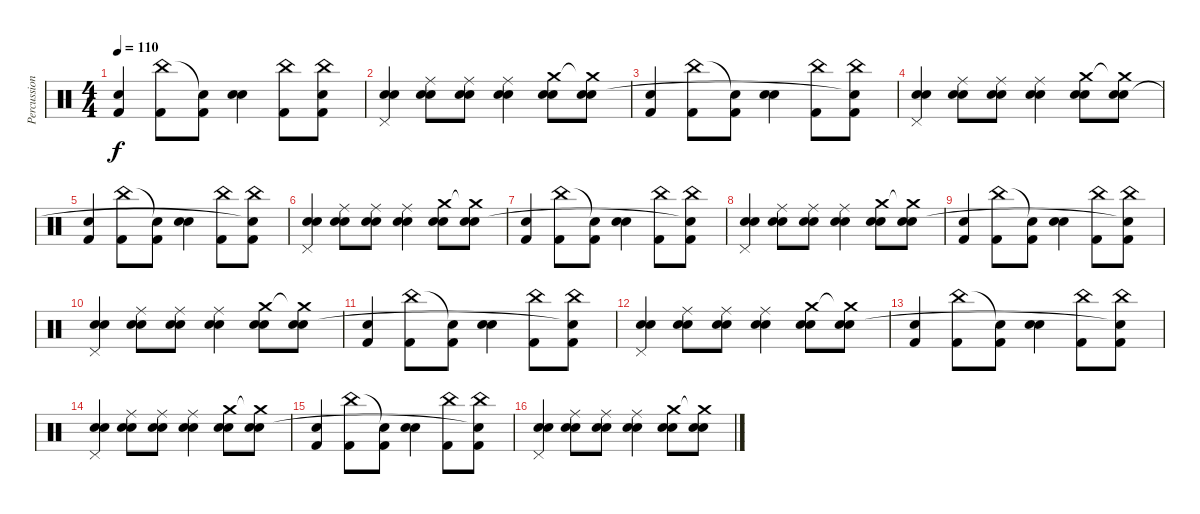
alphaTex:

\track ("Percussion" "Percussion") {instrument percussion}
\staff {score}
\articulation defaults
\ts (4 4)
\tempo 110
\clef neutral
\ks c
("Kick (hit) 2" "Electric Snare (hit)").4{dy f} ("Kick (hit) 2" "China (hit)").8 ("Kick (hit) 2" "Snare (hit)"{t}).8 ("Hand Clap (hit)" "Electric Snare (hit)").4 ("Kick (hit) 2" "China (hit)").8 ("Kick (hit) 2" "China (hit)" "Snare (hit)"{t}).8 |
("Pedal Hi-Hat (hit)" "Electric Snare (hit)" "Snare (hit) 2").4 ("Snare (hit) 2" "Ride (middle)" "Electric Snare (hit)").8 ("Snare (hit) 2" "Ride (middle)" "Electric Snare (hit)").8 ("Snare (hit) 2" "Ride (middle)" "Electric Snare (hit)").4 ("Snare (hit) 2" "Crash medium (hit)" "Electric Snare (hit)").8 ("Snare (hit) 2" "Crash medium (hit)"{t} "Electric Snare (hit)").8 |
("Kick (hit) 2" "Electric Snare (hit)").4 ("Kick (hit) 2" "China (hit)").8 ("Kick (hit) 2" "Snare (hit)"{t}).8 ("Hand Clap (hit)" "Electric Snare (hit)").4 ("Kick (hit) 2" "China (hit)").8 ("Kick (hit) 2" "China (hit)" "Snare (hit)"{t}).8 |
("Pedal Hi-Hat (hit)" "Electric Snare (hit)" "Snare (hit) 2").4 ("Snare (hit) 2" "Ride (middle)" "Electric Snare (hit)").8 ("Snare (hit) 2" "Ride (middle)" "Electric Snare (hit)").8 ("Snare (hit) 2" "Ride (middle)" "Electric Snare (hit)").4 ("Snare (hit) 2" "Crash medium (hit)" "Electric Snare (hit)").8 ("Snare (hit) 2" "Crash medium (hit)"{t} "Electric Snare (hit)").8 |
("Kick (hit) 2" "Electric Snare (hit)").4 ("Kick (hit) 2" "China (hit)").8 ("Kick (hit) 2" "Snare (hit)"{t}).8 ("Hand Clap (hit)" "Electric Snare (hit)").4 ("Kick (hit) 2" "China (hit)").8 ("Kick (hit) 2" "China (hit)" "Snare (hit)"{t}).8 |
("Pedal Hi-Hat (hit)" "Electric Snare (hit)" "Snare (hit) 2").4 ("Snare (hit) 2" "Ride (middle)" "Electric Snare (hit)").8 ("Snare (hit) 2" "Ride (middle)" "Electric Snare (hit)").8 ("Snare (hit) 2" "Ride (middle)" "Electric Snare (hit)").4 ("Snare (hit) 2" "Crash medium (hit)" "Electric Snare (hit)").8 ("Snare (hit) 2" "Crash medium (hit)"{t} "Electric Snare (hit)").8 |
("Kick (hit) 2" "Electric Snare (hit)").4 ("Kick (hit) 2" "China (hit)").8 ("Kick (hit) 2" "Snare (hit)"{t}).8 ("Hand Clap (hit)" "Electric Snare (hit)").4 ("Kick (hit) 2" "China (hit)").8 ("Kick (hit) 2" "China (hit)" "Snare (hit)"{t}).8 |
("Pedal Hi-Hat (hit)" "Electric Snare (hit)" "Snare (hit) 2").4 ("Snare (hit) 2" "Ride (middle)" "Electric Snare (hit)").8 ("Snare (hit) 2" "Ride (middle)" "Electric Snare (hit)").8 ("Snare (hit) 2" "Ride (middle)" "Electric Snare (hit)").4 ("Snare (hit) 2" "Crash medium (hit)" "Electric Snare (hit)").8 ("Snare (hit) 2" "Crash medium (hit)"{t} "Electric Snare (hit)").8 |
("Kick (hit) 2" "Electric Snare (hit)").4 ("Kick (hit) 2" "China (hit)").8 ("Kick (hit) 2" "Snare (hit)"{t}).8 ("Hand Clap (hit)" "Electric Snare (hit)").4 ("Kick (hit) 2" "China (hit)").8 ("Kick (hit) 2" "China (hit)" "Snare (hit)"{t}).8 |
("Pedal Hi-Hat (hit)" "Electric Snare (hit)" "Snare (hit) 2").4 ("Snare (hit) 2" "Ride (middle)" "Electric Snare (hit)").8 ("Snare (hit) 2" "Ride (middle)" "Electric Snare (hit)").8 ("Snare (hit) 2" "Ride (middle)" "Electric Snare (hit)").4 ("Snare (hit) 2" "Crash medium (hit)" "Electric Snare (hit)").8 ("Snare (hit) 2" "Crash medium (hit)"{t} "Electric Snare (hit)").8 |
("Kick (hit) 2" "Electric Snare (hit)").4 ("Kick (hit) 2" "China (hit)").8 ("Kick (hit) 2" "Snare (hit)"{t}).8 ("Hand Clap (hit)" "Electric Snare (hit)").4 ("Kick (hit) 2" "China (hit)").8 ("Kick (hit) 2" "China (hit)" "Snare (hit)"{t}).8 |
("Pedal Hi-Hat (hit)" "Electric Snare (hit)" "Snare (hit) 2").4 ("Snare (hit) 2" "Ride (middle)" "Electric Snare (hit)").8 ("Snare (hit) 2" "Ride (middle)" "Electric Snare (hit)").8 ("Snare (hit) 2" "Ride (middle)" "Electric Snare (hit)").4 ("Snare (hit) 2" "Crash medium (hit)" "Electric Snare (hit)").8 ("Snare (hit) 2" "Crash medium (hit)"{t} "Electric Snare (hit)").8 |
("Kick (hit) 2" "Electric Snare (hit)").4 ("Kick (hit) 2" "China (hit)").8 ("Kick (hit) 2" "Snare (hit)"{t}).8 ("Hand Clap (hit)" "Electric Snare (hit)").4 ("Kick (hit) 2" "China (hit)").8 ("Kick (hit) 2" "China (hit)" "Snare (hit)"{t}).8 |
("Pedal Hi-Hat (hit)" "Electric Snare (hit)" "Snare (hit) 2").4 ("Snare (hit) 2" "Ride (middle)" "Electric Snare (hit)").8 ("Snare (hit) 2" "Ride (middle)" "Electric Snare (hit)").8 ("Snare (hit) 2" "Ride (middle)" "Electric Snare (hit)").4 ("Snare (hit) 2" "Crash medium (hit)" "Electric Snare (hit)").8 ("Snare (hit) 2" "Crash medium (hit)"{t} "Electric Snare (hit)").8 |
("Kick (hit) 2" "Electric Snare (hit)").4 ("Kick (hit) 2" "China (hit)").8 ("Kick (hit) 2" "Snare (hit)"{t}).8 ("Hand Clap (hit)" "Electric Snare (hit)").4 ("Kick (hit) 2" "China (hit)").8 ("Kick (hit) 2" "China (hit)" "Snare (hit)"{t}).8 |
("Pedal Hi-Hat (hit)" "Electric Snare (hit)" "Snare (hit) 2").4 ("Snare (hit) 2" "Ride (middle)" "Electric Snare (hit)").8 ("Snare (hit) 2" "Ride (middle)" "Electric Snare (hit)").8 ("Snare (hit) 2" "Ride (middle)" "Electric Snare (hit)").4 ("Snare (hit) 2" "Crash medium (hit)" "Electric Snare (hit)").8 ("Snare (hit) 2" "Crash medium (hit)"{t} "Electric Snare (hit)").8
